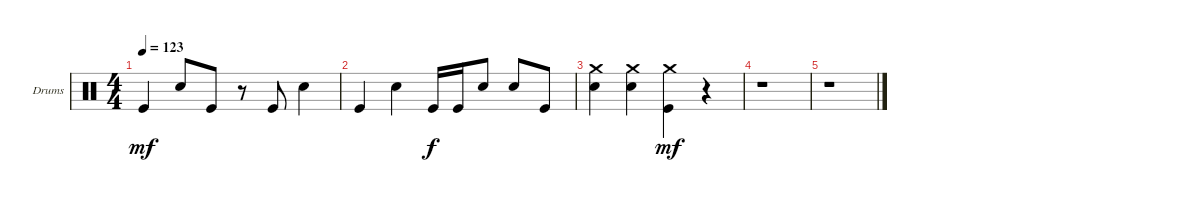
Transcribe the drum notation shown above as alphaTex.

\defaultSystemsLayout 4
\bracketExtendMode groupsimilarinstruments
\firstSystemTrackNameOrientation horizontal
\otherSystemsTrackNameOrientation horizontal
\track ("Drumkit" "Drums") {instrument percussion}
\staff {score}
\articulation defaults
\ts (4 4)
\tempo 123
\clef neutral
\ks c "Kick (hit)".4{dy mf} "Snare (hit) 2".8 "Kick (hit)".8
r.8 "Kick (hit)".8 "Snare (hit) 2".4 |
"Kick (hit)".4 "Snare (hit) 2".4 "Kick (hit)".16{dy f} "Kick (hit)".16 "Snare (hit) 2".8 "Snare (hit) 2".8 "Kick (hit)".8 |
("Snare (hit) 2" "Crash medium (hit)").4 ("Snare (hit) 2" "Crash medium (hit)").4 ("Kick (hit)" "Crash medium (hit)").4{dy mf} r.4 |
r.1 |
r.1
